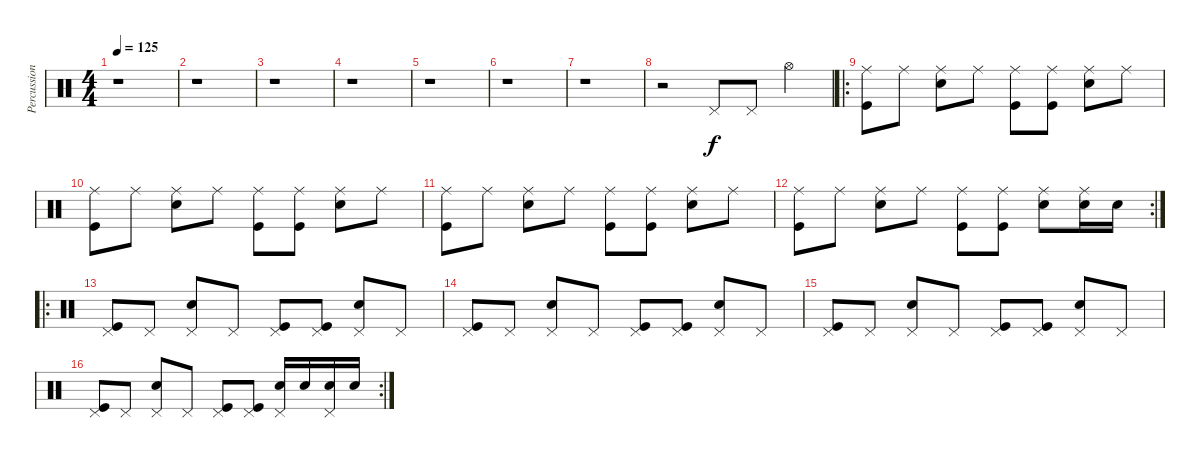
\track ("Percussions" "Percussion") {instrument percussion}
\staff {score}
\articulation defaults
\ts (4 4)
\tempo 125
\clef neutral
\ks c
r.1{dy f} |
r.1 |
r.1 |
r.1 |
r.1 |
r.1 |
r.1 |
r.2 "Pedal Hi-Hat (hit)".8 "Pedal Hi-Hat (hit)".8 "Hi-Hat (open)".4 |
\ro
("Ride (middle)" "Kick (hit)").8 "Ride (middle)".8 ("Ride (middle)" "Electric Snare (hit)").8 "Ride (middle)".8 ("Ride (middle)" "Kick (hit)").8 ("Ride (middle)" "Kick (hit)").8 ("Ride (middle)" "Electric Snare (hit)").8 "Ride (middle)".8 |
("Ride (middle)" "Kick (hit)").8 "Ride (middle)".8 ("Ride (middle)" "Electric Snare (hit)").8 "Ride (middle)".8 ("Ride (middle)" "Kick (hit)").8 ("Ride (middle)" "Kick (hit)").8 ("Ride (middle)" "Electric Snare (hit)").8 "Ride (middle)".8 |
("Ride (middle)" "Kick (hit)").8 "Ride (middle)".8 ("Ride (middle)" "Electric Snare (hit)").8 "Ride (middle)".8 ("Ride (middle)" "Kick (hit)").8 ("Ride (middle)" "Kick (hit)").8 ("Ride (middle)" "Electric Snare (hit)").8 "Ride (middle)".8 |
\rc 2
("Ride (middle)" "Kick (hit)").8 "Ride (middle)".8 ("Ride (middle)" "Electric Snare (hit)").8 "Ride (middle)".8 ("Ride (middle)" "Kick (hit)").8 ("Ride (middle)" "Kick (hit)").8 ("Ride (middle)" "Electric Snare (hit)").8 ("Ride (middle)" "Electric Snare (hit)").16 "Electric Snare (hit)".16 |
\ro
("Pedal Hi-Hat (hit)" "Kick (hit)").8 "Pedal Hi-Hat (hit)".8 ("Pedal Hi-Hat (hit)" "Electric Snare (hit)").8 "Pedal Hi-Hat (hit)".8 ("Pedal Hi-Hat (hit)" "Kick (hit)").8 ("Pedal Hi-Hat (hit)" "Kick (hit)").8 ("Pedal Hi-Hat (hit)" "Electric Snare (hit)").8 "Pedal Hi-Hat (hit)".8 |
("Pedal Hi-Hat (hit)" "Kick (hit)").8 "Pedal Hi-Hat (hit)".8 ("Pedal Hi-Hat (hit)" "Electric Snare (hit)").8 "Pedal Hi-Hat (hit)".8 ("Pedal Hi-Hat (hit)" "Kick (hit)").8 ("Pedal Hi-Hat (hit)" "Kick (hit)").8 ("Pedal Hi-Hat (hit)" "Electric Snare (hit)").8 "Pedal Hi-Hat (hit)".8 |
("Pedal Hi-Hat (hit)" "Kick (hit)").8 "Pedal Hi-Hat (hit)".8 ("Pedal Hi-Hat (hit)" "Electric Snare (hit)").8 "Pedal Hi-Hat (hit)".8 ("Pedal Hi-Hat (hit)" "Kick (hit)").8 ("Pedal Hi-Hat (hit)" "Kick (hit)").8 ("Pedal Hi-Hat (hit)" "Electric Snare (hit)").8 "Pedal Hi-Hat (hit)".8 |
\rc 2
("Pedal Hi-Hat (hit)" "Kick (hit)").8 "Pedal Hi-Hat (hit)".8 ("Pedal Hi-Hat (hit)" "Electric Snare (hit)").8 "Pedal Hi-Hat (hit)".8 ("Pedal Hi-Hat (hit)" "Kick (hit)").8 ("Pedal Hi-Hat (hit)" "Kick (hit)").8 ("Pedal Hi-Hat (hit)" "Electric Snare (hit)").16 "Electric Snare (hit)".16 ("Pedal Hi-Hat (hit)" "Electric Snare (hit)").16 "Electric Snare (hit)".16
